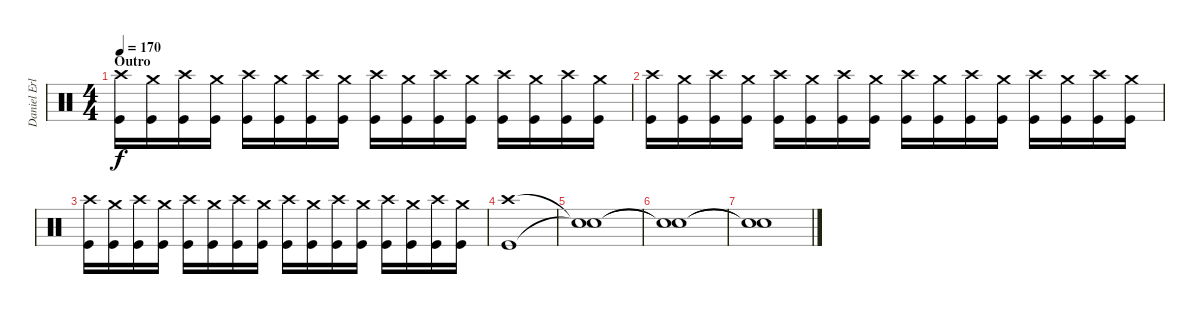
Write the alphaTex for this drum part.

\track ("Daniel Erlandson" "Daniel Erl") {instrument percussion}
\staff {score}
\articulation defaults
\ts (4 4)
\section ("" "Outro")
\tempo 170
\clef neutral
\ks c
("Crash high (hit)" "Kick (hit)").16{dy f} ("Crash medium (hit)" "Kick (hit)").16 ("Crash high (hit)" "Kick (hit)").16 ("Crash medium (hit)" "Kick (hit)").16 ("Crash high (hit)" "Kick (hit)").16 ("Crash medium (hit)" "Kick (hit)").16 ("Crash high (hit)" "Kick (hit)").16 ("Crash medium (hit)" "Kick (hit)").16 ("Crash high (hit)" "Kick (hit)").16 ("Crash medium (hit)" "Kick (hit)").16 ("Crash high (hit)" "Kick (hit)").16 ("Crash medium (hit)" "Kick (hit)").16 ("Crash high (hit)" "Kick (hit)").16 ("Crash medium (hit)" "Kick (hit)").16 ("Crash high (hit)" "Kick (hit)").16 ("Crash medium (hit)" "Kick (hit)").16 |
("Crash high (hit)" "Kick (hit)").16 ("Crash medium (hit)" "Kick (hit)").16 ("Crash high (hit)" "Kick (hit)").16 ("Crash medium (hit)" "Kick (hit)").16 ("Crash high (hit)" "Kick (hit)").16 ("Crash medium (hit)" "Kick (hit)").16 ("Crash high (hit)" "Kick (hit)").16 ("Crash medium (hit)" "Kick (hit)").16 ("Crash high (hit)" "Kick (hit)").16 ("Crash medium (hit)" "Kick (hit)").16 ("Crash high (hit)" "Kick (hit)").16 ("Crash medium (hit)" "Kick (hit)").16 ("Crash high (hit)" "Kick (hit)").16 ("Crash medium (hit)" "Kick (hit)").16 ("Crash high (hit)" "Kick (hit)").16 ("Crash medium (hit)" "Kick (hit)").16 |
("Crash high (hit)" "Kick (hit)").16 ("Crash medium (hit)" "Kick (hit)").16 ("Crash high (hit)" "Kick (hit)").16 ("Crash medium (hit)" "Kick (hit)").16 ("Crash high (hit)" "Kick (hit)").16 ("Crash medium (hit)" "Kick (hit)").16 ("Crash high (hit)" "Kick (hit)").16 ("Crash medium (hit)" "Kick (hit)").16 ("Crash high (hit)" "Kick (hit)").16 ("Crash medium (hit)" "Kick (hit)").16 ("Crash high (hit)" "Kick (hit)").16 ("Crash medium (hit)" "Kick (hit)").16 ("Crash high (hit)" "Kick (hit)").16 ("Crash medium (hit)" "Kick (hit)").16 ("Crash high (hit)" "Kick (hit)").16 ("Crash medium (hit)" "Kick (hit)").16 |
("Crash high (hit)" "Kick (hit)").1{volume 0} |
("Snare (hit)"{t} "Snare (hit)"{t}).1 |
("Snare (hit)"{t} "Snare (hit)"{t}).1 |
("Snare (hit)"{t} "Snare (hit)"{t}).1
